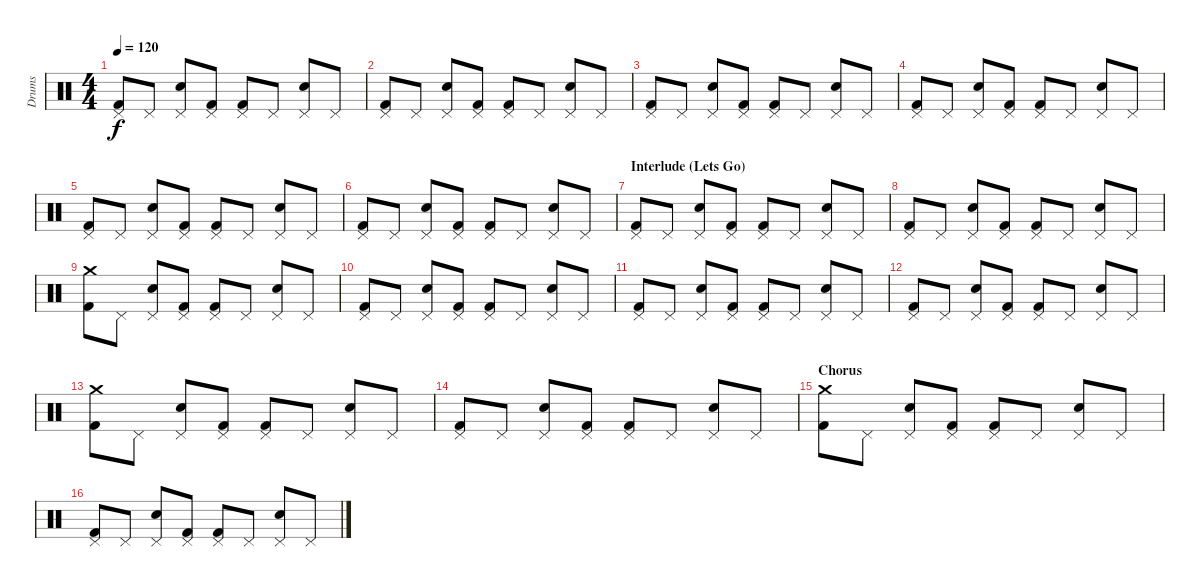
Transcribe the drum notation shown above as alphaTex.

\track ("Drums" "Drums") {instrument percussion}
\staff {score}
\articulation defaults
\ts (4 4)
\tempo 120
\clef neutral
\ks c
("Pedal Hi-Hat (hit)" "Kick (hit) 2").8{dy f} "Pedal Hi-Hat (hit)".8 ("Pedal Hi-Hat (hit)" "Electric Snare (hit)").8 ("Pedal Hi-Hat (hit)" "Kick (hit) 2").8 ("Pedal Hi-Hat (hit)" "Kick (hit) 2").8 "Pedal Hi-Hat (hit)".8 ("Pedal Hi-Hat (hit)" "Electric Snare (hit)").8 "Pedal Hi-Hat (hit)".8 |
("Pedal Hi-Hat (hit)" "Kick (hit) 2").8 "Pedal Hi-Hat (hit)".8 ("Pedal Hi-Hat (hit)" "Electric Snare (hit)").8 ("Pedal Hi-Hat (hit)" "Kick (hit) 2").8 ("Pedal Hi-Hat (hit)" "Kick (hit) 2").8 "Pedal Hi-Hat (hit)".8 ("Pedal Hi-Hat (hit)" "Electric Snare (hit)").8 "Pedal Hi-Hat (hit)".8 |
("Pedal Hi-Hat (hit)" "Kick (hit) 2").8 "Pedal Hi-Hat (hit)".8 ("Pedal Hi-Hat (hit)" "Electric Snare (hit)").8 ("Pedal Hi-Hat (hit)" "Kick (hit) 2").8 ("Pedal Hi-Hat (hit)" "Kick (hit) 2").8 "Pedal Hi-Hat (hit)".8 ("Pedal Hi-Hat (hit)" "Electric Snare (hit)").8 "Pedal Hi-Hat (hit)".8 |
("Pedal Hi-Hat (hit)" "Kick (hit) 2").8 "Pedal Hi-Hat (hit)".8 ("Pedal Hi-Hat (hit)" "Electric Snare (hit)").8 ("Pedal Hi-Hat (hit)" "Kick (hit) 2").8 ("Pedal Hi-Hat (hit)" "Kick (hit) 2").8 "Pedal Hi-Hat (hit)".8 ("Pedal Hi-Hat (hit)" "Electric Snare (hit)").8 "Pedal Hi-Hat (hit)".8 |
("Pedal Hi-Hat (hit)" "Kick (hit) 2").8 "Pedal Hi-Hat (hit)".8 ("Pedal Hi-Hat (hit)" "Electric Snare (hit)").8 ("Pedal Hi-Hat (hit)" "Kick (hit) 2").8 ("Pedal Hi-Hat (hit)" "Kick (hit) 2").8 "Pedal Hi-Hat (hit)".8 ("Pedal Hi-Hat (hit)" "Electric Snare (hit)").8 "Pedal Hi-Hat (hit)".8 |
("Pedal Hi-Hat (hit)" "Kick (hit) 2").8 "Pedal Hi-Hat (hit)".8 ("Pedal Hi-Hat (hit)" "Electric Snare (hit)").8 ("Pedal Hi-Hat (hit)" "Kick (hit) 2").8 ("Pedal Hi-Hat (hit)" "Kick (hit) 2").8 "Pedal Hi-Hat (hit)".8 ("Pedal Hi-Hat (hit)" "Electric Snare (hit)").8 "Pedal Hi-Hat (hit)".8 |
\section ("" "Interlude (Lets Go)")
("Pedal Hi-Hat (hit)" "Kick (hit) 2").8 "Pedal Hi-Hat (hit)".8 ("Pedal Hi-Hat (hit)" "Electric Snare (hit)").8 ("Pedal Hi-Hat (hit)" "Kick (hit) 2").8 ("Pedal Hi-Hat (hit)" "Kick (hit) 2").8 "Pedal Hi-Hat (hit)".8 ("Pedal Hi-Hat (hit)" "Electric Snare (hit)").8 "Pedal Hi-Hat (hit)".8 |
("Pedal Hi-Hat (hit)" "Kick (hit) 2").8 "Pedal Hi-Hat (hit)".8 ("Pedal Hi-Hat (hit)" "Electric Snare (hit)").8 ("Pedal Hi-Hat (hit)" "Kick (hit) 2").8 ("Pedal Hi-Hat (hit)" "Kick (hit) 2").8 "Pedal Hi-Hat (hit)".8 ("Pedal Hi-Hat (hit)" "Electric Snare (hit)").8 "Pedal Hi-Hat (hit)".8 |
("Crash medium (hit)" "Kick (hit) 2").8 "Pedal Hi-Hat (hit)".8 ("Pedal Hi-Hat (hit)" "Electric Snare (hit)").8 ("Pedal Hi-Hat (hit)" "Kick (hit) 2").8 ("Pedal Hi-Hat (hit)" "Kick (hit) 2").8 "Pedal Hi-Hat (hit)".8 ("Pedal Hi-Hat (hit)" "Electric Snare (hit)").8 "Pedal Hi-Hat (hit)".8 |
("Pedal Hi-Hat (hit)" "Kick (hit) 2").8 "Pedal Hi-Hat (hit)".8 ("Pedal Hi-Hat (hit)" "Electric Snare (hit)").8 ("Pedal Hi-Hat (hit)" "Kick (hit) 2").8 ("Pedal Hi-Hat (hit)" "Kick (hit) 2").8 "Pedal Hi-Hat (hit)".8 ("Pedal Hi-Hat (hit)" "Electric Snare (hit)").8 "Pedal Hi-Hat (hit)".8 |
("Pedal Hi-Hat (hit)" "Kick (hit) 2").8 "Pedal Hi-Hat (hit)".8 ("Pedal Hi-Hat (hit)" "Electric Snare (hit)").8 ("Pedal Hi-Hat (hit)" "Kick (hit) 2").8 ("Pedal Hi-Hat (hit)" "Kick (hit) 2").8 "Pedal Hi-Hat (hit)".8 ("Pedal Hi-Hat (hit)" "Electric Snare (hit)").8 "Pedal Hi-Hat (hit)".8 |
("Pedal Hi-Hat (hit)" "Kick (hit) 2").8 "Pedal Hi-Hat (hit)".8 ("Pedal Hi-Hat (hit)" "Electric Snare (hit)").8 ("Pedal Hi-Hat (hit)" "Kick (hit) 2").8 ("Pedal Hi-Hat (hit)" "Kick (hit) 2").8 "Pedal Hi-Hat (hit)".8 ("Pedal Hi-Hat (hit)" "Electric Snare (hit)").8 "Pedal Hi-Hat (hit)".8 |
("Crash medium (hit)" "Kick (hit) 2").8 "Pedal Hi-Hat (hit)".8 ("Pedal Hi-Hat (hit)" "Electric Snare (hit)").8 ("Pedal Hi-Hat (hit)" "Kick (hit) 2").8 ("Pedal Hi-Hat (hit)" "Kick (hit) 2").8 "Pedal Hi-Hat (hit)".8 ("Pedal Hi-Hat (hit)" "Electric Snare (hit)").8 "Pedal Hi-Hat (hit)".8 |
("Pedal Hi-Hat (hit)" "Kick (hit) 2").8 "Pedal Hi-Hat (hit)".8 ("Pedal Hi-Hat (hit)" "Electric Snare (hit)").8 ("Pedal Hi-Hat (hit)" "Kick (hit) 2").8 ("Pedal Hi-Hat (hit)" "Kick (hit) 2").8 "Pedal Hi-Hat (hit)".8 ("Pedal Hi-Hat (hit)" "Electric Snare (hit)").8 "Pedal Hi-Hat (hit)".8 |
\section ("" "Chorus")
("Crash medium (hit)" "Kick (hit) 2").8 "Pedal Hi-Hat (hit)".8 ("Pedal Hi-Hat (hit)" "Electric Snare (hit)").8 ("Pedal Hi-Hat (hit)" "Kick (hit) 2").8 ("Pedal Hi-Hat (hit)" "Kick (hit) 2").8 "Pedal Hi-Hat (hit)".8 ("Pedal Hi-Hat (hit)" "Electric Snare (hit)").8 "Pedal Hi-Hat (hit)".8 |
("Pedal Hi-Hat (hit)" "Kick (hit) 2").8 "Pedal Hi-Hat (hit)".8 ("Pedal Hi-Hat (hit)" "Electric Snare (hit)").8 ("Pedal Hi-Hat (hit)" "Kick (hit) 2").8 ("Pedal Hi-Hat (hit)" "Kick (hit) 2").8 "Pedal Hi-Hat (hit)".8 ("Pedal Hi-Hat (hit)" "Electric Snare (hit)").8 "Pedal Hi-Hat (hit)".8
